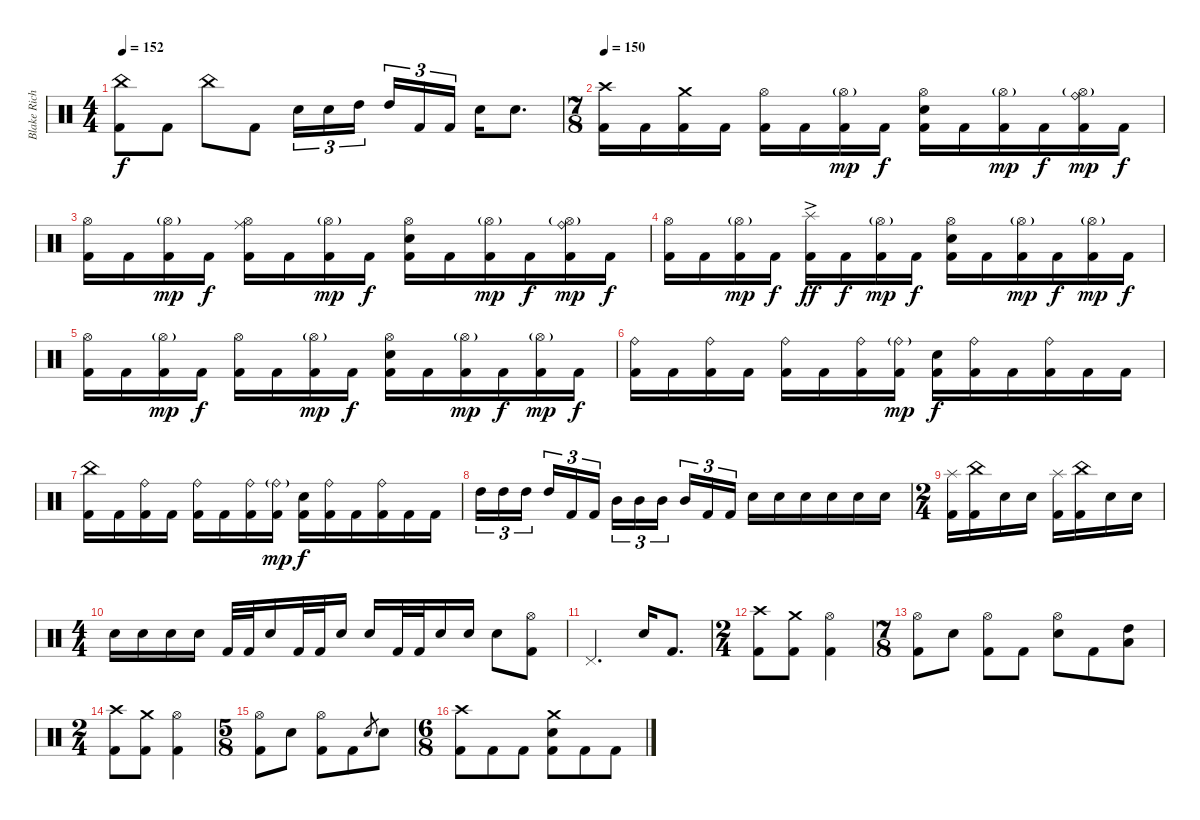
\track ("Blake Richardson" "Blake Rich") {instrument percussion}
\staff {score}
\articulation defaults
\ts (4 4)
\tempo 152
\clef neutral
\ks c
("China (hit)" "Kick (hit) 2").8{dy f} "Kick (hit) 2".8 "China (hit)".8 "Kick (hit) 2".8 "Electric Snare (hit)".16{tu (3 2)} "Electric Snare (hit)".16{tu (3 2)} "High Tom (hit)".16{tu (3 2) beam splitsecondary} "High Tom (hit)".16{tu (3 2)} "Kick (hit) 2".16{tu (3 2)} "Kick (hit) 2".16{tu (3 2)} "Electric Snare (hit)".16 "Electric Snare (hit)".8{d} |
\ts (7 8)
\tempo 150
("Crash high (hit)" "Kick (hit) 2").16 "Kick (hit) 2".16{beam merge} ("Crash medium (hit)" "Kick (hit) 2").16 "Kick (hit) 2".16{beam split} ("Hi-Hat (open)" "Kick (hit) 2").16 "Kick (hit) 2".16{beam merge} ("Hi-Hat (open)"{g} "Kick (hit) 2").16{dy mp} "Kick (hit) 2".16{dy f beam split} ("Hi-Hat (open)" "Electric Snare (hit)" "Kick (hit) 2").16 "Kick (hit) 2".16{beam merge} ("Hi-Hat (open)"{g} "Kick (hit) 2").16{dy mp} "Kick (hit) 2".16{dy f beam merge} ("Hi-Hat (open)"{g} "Ride (bell)" "Kick (hit) 2").16{dy mp} "Kick (hit) 2".16{dy f} |
("Hi-Hat (open)" "Kick (hit) 2").16 "Kick (hit) 2".16{beam merge} ("Hi-Hat (open)"{g} "Kick (hit) 2").16{dy mp} "Kick (hit) 2".16{dy f beam split} ("Hi-Hat (open)" "Ride (middle)" "Kick (hit) 2").16 "Kick (hit) 2".16{beam merge} ("Hi-Hat (open)"{g} "Kick (hit) 2").16{dy mp} "Kick (hit) 2".16{dy f beam split} ("Hi-Hat (open)" "Electric Snare (hit)" "Kick (hit) 2").16 "Kick (hit) 2".16{beam merge} ("Hi-Hat (open)"{g} "Kick (hit) 2").16{dy mp} "Kick (hit) 2".16{dy f beam merge} ("Hi-Hat (open)"{g} "Ride (bell)" "Kick (hit) 2").16{dy mp} "Kick (hit) 2".16{dy f} |
("Hi-Hat (open)" "Kick (hit) 2").16 "Kick (hit) 2".16{beam merge} ("Hi-Hat (open)"{g} "Kick (hit) 2").16{dy mp} "Kick (hit) 2".16{dy f beam split} ("Splash (hit)"{ac} "Kick (hit) 2").16{dy ff} "Kick (hit) 2".16{dy f beam merge} ("Hi-Hat (open)"{g} "Kick (hit) 2").16{dy mp} "Kick (hit) 2".16{dy f beam split} ("Hi-Hat (open)" "Electric Snare (hit)" "Kick (hit) 2").16 "Kick (hit) 2".16{beam merge} ("Hi-Hat (open)"{g} "Kick (hit) 2").16{dy mp} "Kick (hit) 2".16{dy f beam merge} ("Hi-Hat (open)"{g} "Kick (hit) 2").16{dy mp} "Kick (hit) 2".16{dy f} |
("Hi-Hat (open)" "Kick (hit) 2").16 "Kick (hit) 2".16{beam merge} ("Hi-Hat (open)"{g} "Kick (hit) 2").16{dy mp} "Kick (hit) 2".16{dy f beam split} ("Hi-Hat (open)" "Kick (hit) 2").16 "Kick (hit) 2".16{beam merge} ("Hi-Hat (open)"{g} "Kick (hit) 2").16{dy mp} "Kick (hit) 2".16{dy f beam split} ("Hi-Hat (open)" "Electric Snare (hit)" "Kick (hit) 2").16 "Kick (hit) 2".16{beam merge} ("Hi-Hat (open)"{g} "Kick (hit) 2").16{dy mp} "Kick (hit) 2".16{dy f beam merge} ("Hi-Hat (open)"{g} "Kick (hit) 2").16{dy mp} "Kick (hit) 2".16{dy f} |
("Ride (bell)" "Kick (hit) 2").16 "Kick (hit) 2".16{beam merge} ("Ride (bell)" "Kick (hit) 2").16 "Kick (hit) 2".16{beam split} ("Ride (bell)" "Kick (hit) 2").16 "Kick (hit) 2".16{beam merge} ("Ride (bell)" "Kick (hit) 2").16 ("Ride (bell)"{g} "Kick (hit) 2").16{dy mp beam split} ("Electric Snare (hit)" "Kick (hit) 2").16{dy f} ("Ride (bell)" "Kick (hit) 2").16{beam merge} "Kick (hit) 2".16 ("Ride (bell)" "Kick (hit) 2").16{beam merge} "Kick (hit) 2".16 "Kick (hit) 2".16 |
("China (hit)" "Kick (hit) 2").16 "Kick (hit) 2".16{beam merge} ("Ride (bell)" "Kick (hit) 2").16 "Kick (hit) 2".16{beam split} ("Ride (bell)" "Kick (hit) 2").16 "Kick (hit) 2".16{beam merge} ("Ride (bell)" "Kick (hit) 2").16 ("Ride (bell)"{g} "Kick (hit) 2").16{dy mp beam split} ("Electric Snare (hit)" "Kick (hit) 2").16{dy f} ("Ride (bell)" "Kick (hit) 2").16{beam merge} "Kick (hit) 2".16 ("Ride (bell)" "Kick (hit) 2").16{beam merge} "Kick (hit) 2".16 "Kick (hit) 2".16 |
"High Tom (hit)".16{tu (3 2)} "High Tom (hit)".16{tu (3 2)} "High Tom (hit)".16{tu (3 2) beam splitsecondary} "High Tom (hit)".16{tu (3 2)} "Kick (hit) 2".16{tu (3 2)} "Kick (hit) 2".16{tu (3 2) beam split} "Mid Tom (hit)".16{tu (3 2)} "Mid Tom (hit)".16{tu (3 2)} "Mid Tom (hit)".16{tu (3 2) beam splitsecondary} "Mid Tom (hit)".16{tu (3 2)} "Kick (hit) 2".16{tu (3 2)} "Kick (hit) 2".16{tu (3 2)} "Electric Snare (hit)".16 "Electric Snare (hit)".16{beam merge} "Electric Snare (hit)".16 "Electric Snare (hit)".16{beam merge} "Electric Snare (hit)".16 "Electric Snare (hit)".16 |
\ts (2 4)
("Splash (hit)" "Kick (hit) 2").16 ("China (hit)" "Kick (hit) 2").16 "Electric Snare (hit)".16 "Electric Snare (hit)".16 ("Splash (hit)" "Kick (hit) 2").16 ("China (hit)" "Kick (hit) 2").16 "Electric Snare (hit)".16 "Electric Snare (hit)".16 |
\ts (4 4)
"Electric Snare (hit)".16 "Electric Snare (hit)".16 "Electric Snare (hit)".16 "Electric Snare (hit)".16 "Kick (hit) 2".32 "Kick (hit) 2".32 "Electric Snare (hit)".16 "Kick (hit) 2".32 "Kick (hit) 2".32 "Electric Snare (hit)".16 "Electric Snare (hit)".16 "Kick (hit) 2".32 "Kick (hit) 2".32 "Electric Snare (hit)".16 "Electric Snare (hit)".16 "Electric Snare (hit)".8 ("Hi-Hat (open)" "Kick (hit) 2").8 |
"Pedal Hi-Hat (hit)".2{d} "Electric Snare (hit)".16 "Kick (hit) 2".8{d} |
\ts (2 4)
("Crash high (hit)" "Kick (hit) 2").8 ("Crash medium (hit)" "Kick (hit) 2").8 ("Hi-Hat (open)" "Kick (hit) 2").4 |
\ts (7 8)
("Hi-Hat (open)" "Kick (hit) 2").8 "Electric Snare (hit)".8{beam split} ("Hi-Hat (open)" "Kick (hit) 2").8{beam merge} "Kick (hit) 2".8{beam split} ("Hi-Hat (open)" "Electric Snare (hit)").8{beam merge} "Kick (hit) 2".8 ("High Tom (hit)" "Low Tom (hit)").8 |
\ts (2 4)
("Crash high (hit)" "Kick (hit) 2").8 ("Crash medium (hit)" "Kick (hit) 2").8 ("Hi-Hat (open)" "Kick (hit) 2").4 |
\ts (5 8)
("Hi-Hat (open)" "Kick (hit) 2").8 "Electric Snare (hit)".8{beam split} ("Hi-Hat (open)" "Kick (hit) 2").8{beam merge} "Kick (hit) 2".8 "Electric Snare (hit)".8{gr} "Electric Snare (hit)".8 |
\ts (6 8)
("Crash high (hit)" "Kick (hit) 2").8 "Kick (hit) 2".8 "Kick (hit) 2".8 ("Crash medium (hit)" "Electric Snare (hit)" "Kick (hit) 2").8 "Kick (hit) 2".8 "Kick (hit) 2".8
